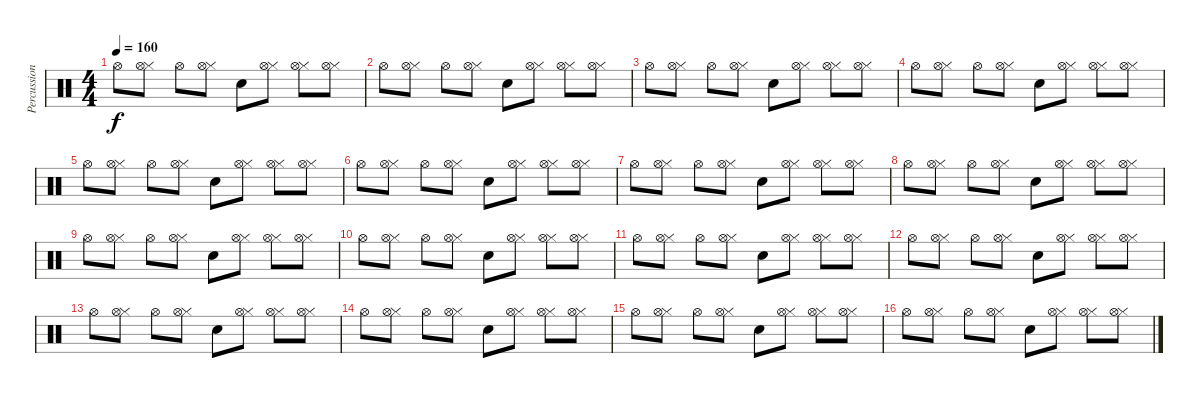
\track ("Percussions" "Percussion") {instrument percussion}
\staff {score}
\articulation defaults
\ts (4 4)
\tempo 160
\clef neutral
\ks c "Hi-Hat (open)".8{dy f}
("Hi-Hat (closed)" "Hi-Hat (open)").8 "Hi-Hat (open)".8 ("Hi-Hat (closed)" "Hi-Hat (open)").8 "Snare (hit) 2".8 ("Hi-Hat (closed)" "Hi-Hat (open)").8 ("Hi-Hat (closed)" "Hi-Hat (open)").8 ("Hi-Hat (closed)" "Hi-Hat (open)").8 |
"Hi-Hat (open)".8 ("Hi-Hat (closed)" "Hi-Hat (open)").8 "Hi-Hat (open)".8 ("Hi-Hat (closed)" "Hi-Hat (open)").8 "Snare (hit) 2".8 ("Hi-Hat (closed)" "Hi-Hat (open)").8 ("Hi-Hat (closed)" "Hi-Hat (open)").8 ("Hi-Hat (closed)" "Hi-Hat (open)").8 |
"Hi-Hat (open)".8 ("Hi-Hat (closed)" "Hi-Hat (open)").8 "Hi-Hat (open)".8 ("Hi-Hat (closed)" "Hi-Hat (open)").8 "Snare (hit) 2".8 ("Hi-Hat (closed)" "Hi-Hat (open)").8 ("Hi-Hat (closed)" "Hi-Hat (open)").8 ("Hi-Hat (closed)" "Hi-Hat (open)").8 |
"Hi-Hat (open)".8 ("Hi-Hat (closed)" "Hi-Hat (open)").8 "Hi-Hat (open)".8 ("Hi-Hat (closed)" "Hi-Hat (open)").8 "Snare (hit) 2".8 ("Hi-Hat (closed)" "Hi-Hat (open)").8 ("Hi-Hat (closed)" "Hi-Hat (open)").8 ("Hi-Hat (closed)" "Hi-Hat (open)").8 |
"Hi-Hat (open)".8 ("Hi-Hat (closed)" "Hi-Hat (open)").8 "Hi-Hat (open)".8 ("Hi-Hat (closed)" "Hi-Hat (open)").8 "Snare (hit) 2".8 ("Hi-Hat (closed)" "Hi-Hat (open)").8 ("Hi-Hat (closed)" "Hi-Hat (open)").8 ("Hi-Hat (closed)" "Hi-Hat (open)").8 |
"Hi-Hat (open)".8 ("Hi-Hat (closed)" "Hi-Hat (open)").8 "Hi-Hat (open)".8 ("Hi-Hat (closed)" "Hi-Hat (open)").8 "Snare (hit) 2".8 ("Hi-Hat (closed)" "Hi-Hat (open)").8 ("Hi-Hat (closed)" "Hi-Hat (open)").8 ("Hi-Hat (closed)" "Hi-Hat (open)").8 |
"Hi-Hat (open)".8 ("Hi-Hat (closed)" "Hi-Hat (open)").8 "Hi-Hat (open)".8 ("Hi-Hat (closed)" "Hi-Hat (open)").8 "Snare (hit) 2".8 ("Hi-Hat (closed)" "Hi-Hat (open)").8 ("Hi-Hat (closed)" "Hi-Hat (open)").8 ("Hi-Hat (closed)" "Hi-Hat (open)").8 |
"Hi-Hat (open)".8 ("Hi-Hat (closed)" "Hi-Hat (open)").8 "Hi-Hat (open)".8 ("Hi-Hat (closed)" "Hi-Hat (open)").8 "Snare (hit) 2".8 ("Hi-Hat (closed)" "Hi-Hat (open)").8 ("Hi-Hat (closed)" "Hi-Hat (open)").8 ("Hi-Hat (closed)" "Hi-Hat (open)").8 |
"Hi-Hat (open)".8 ("Hi-Hat (closed)" "Hi-Hat (open)").8 "Hi-Hat (open)".8 ("Hi-Hat (closed)" "Hi-Hat (open)").8 "Snare (hit) 2".8 ("Hi-Hat (closed)" "Hi-Hat (open)").8 ("Hi-Hat (closed)" "Hi-Hat (open)").8 ("Hi-Hat (closed)" "Hi-Hat (open)").8 |
"Hi-Hat (open)".8 ("Hi-Hat (closed)" "Hi-Hat (open)").8 "Hi-Hat (open)".8 ("Hi-Hat (closed)" "Hi-Hat (open)").8 "Snare (hit) 2".8 ("Hi-Hat (closed)" "Hi-Hat (open)").8 ("Hi-Hat (closed)" "Hi-Hat (open)").8 ("Hi-Hat (closed)" "Hi-Hat (open)").8 |
"Hi-Hat (open)".8 ("Hi-Hat (closed)" "Hi-Hat (open)").8 "Hi-Hat (open)".8 ("Hi-Hat (closed)" "Hi-Hat (open)").8 "Snare (hit) 2".8 ("Hi-Hat (closed)" "Hi-Hat (open)").8 ("Hi-Hat (closed)" "Hi-Hat (open)").8 ("Hi-Hat (closed)" "Hi-Hat (open)").8 |
"Hi-Hat (open)".8 ("Hi-Hat (closed)" "Hi-Hat (open)").8 "Hi-Hat (open)".8 ("Hi-Hat (closed)" "Hi-Hat (open)").8 "Snare (hit) 2".8 ("Hi-Hat (closed)" "Hi-Hat (open)").8 ("Hi-Hat (closed)" "Hi-Hat (open)").8 ("Hi-Hat (closed)" "Hi-Hat (open)").8 |
"Hi-Hat (open)".8 ("Hi-Hat (closed)" "Hi-Hat (open)").8 "Hi-Hat (open)".8 ("Hi-Hat (closed)" "Hi-Hat (open)").8 "Snare (hit) 2".8 ("Hi-Hat (closed)" "Hi-Hat (open)").8 ("Hi-Hat (closed)" "Hi-Hat (open)").8 ("Hi-Hat (closed)" "Hi-Hat (open)").8 |
"Hi-Hat (open)".8 ("Hi-Hat (closed)" "Hi-Hat (open)").8 "Hi-Hat (open)".8 ("Hi-Hat (closed)" "Hi-Hat (open)").8 "Snare (hit) 2".8 ("Hi-Hat (closed)" "Hi-Hat (open)").8 ("Hi-Hat (closed)" "Hi-Hat (open)").8 ("Hi-Hat (closed)" "Hi-Hat (open)").8 |
"Hi-Hat (open)".8 ("Hi-Hat (closed)" "Hi-Hat (open)").8 "Hi-Hat (open)".8 ("Hi-Hat (closed)" "Hi-Hat (open)").8 "Snare (hit) 2".8 ("Hi-Hat (closed)" "Hi-Hat (open)").8 ("Hi-Hat (closed)" "Hi-Hat (open)").8 ("Hi-Hat (closed)" "Hi-Hat (open)").8 |
"Hi-Hat (open)".8 ("Hi-Hat (closed)" "Hi-Hat (open)").8 "Hi-Hat (open)".8 ("Hi-Hat (closed)" "Hi-Hat (open)").8 "Snare (hit) 2".8 ("Hi-Hat (closed)" "Hi-Hat (open)").8 ("Hi-Hat (closed)" "Hi-Hat (open)").8 ("Hi-Hat (closed)" "Hi-Hat (open)").8
